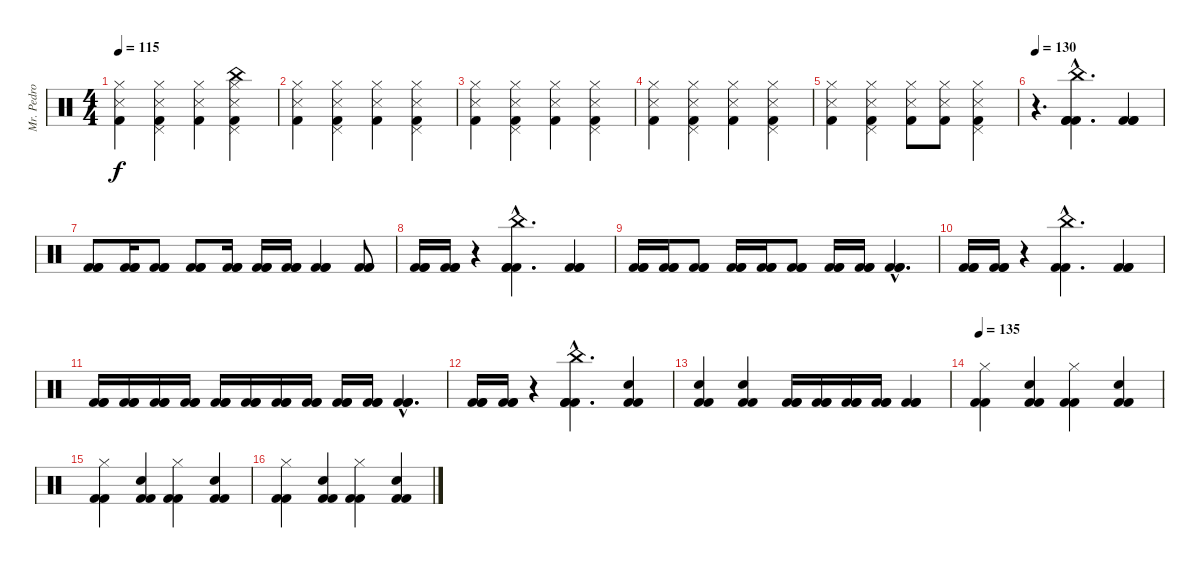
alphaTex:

\track ("Mr. Pedro Andreu" "Mr. Pedro ") {instrument percussion}
\staff {score}
\articulation defaults
\ts (4 4)
\tempo 115
\clef neutral
\ks c
("Hi-Hat (closed)" "Snare (side stick) 3" "Kick (hit) 2").4{dy f} ("Hi-Hat (closed)" "Pedal Hi-Hat (hit)" "Snare (side stick) 3" "Kick (hit) 2").4 ("Hi-Hat (closed)" "Snare (side stick) 3" "Kick (hit) 2").4 ("Hi-Hat (closed)" "Pedal Hi-Hat (hit)" "China (hit)" "Snare (side stick) 3" "Kick (hit) 2").4 |
("Hi-Hat (closed)" "Snare (side stick) 3" "Kick (hit) 2").4 ("Hi-Hat (closed)" "Pedal Hi-Hat (hit)" "Snare (side stick) 3" "Kick (hit) 2").4 ("Hi-Hat (closed)" "Snare (side stick) 3" "Kick (hit) 2").4 ("Hi-Hat (closed)" "Pedal Hi-Hat (hit)" "Snare (side stick) 3" "Kick (hit) 2").4 |
("Hi-Hat (closed)" "Snare (side stick) 3" "Kick (hit) 2").4 ("Hi-Hat (closed)" "Pedal Hi-Hat (hit)" "Snare (side stick) 3" "Kick (hit) 2").4 ("Hi-Hat (closed)" "Snare (side stick) 3" "Kick (hit) 2").4 ("Hi-Hat (closed)" "Pedal Hi-Hat (hit)" "Snare (side stick) 3" "Kick (hit) 2").4 |
("Hi-Hat (closed)" "Snare (side stick) 3" "Kick (hit) 2").4 ("Hi-Hat (closed)" "Pedal Hi-Hat (hit)" "Snare (side stick) 3" "Kick (hit) 2").4 ("Hi-Hat (closed)" "Snare (side stick) 3" "Kick (hit) 2").4 ("Hi-Hat (closed)" "Pedal Hi-Hat (hit)" "Snare (side stick) 3" "Kick (hit) 2").4 |
("Hi-Hat (closed)" "Snare (side stick) 3" "Kick (hit) 2").4 ("Hi-Hat (closed)" "Pedal Hi-Hat (hit)" "Snare (side stick) 3" "Kick (hit) 2").4 ("Hi-Hat (closed)" "Snare (side stick) 3" "Kick (hit) 2").8 ("Hi-Hat (closed)" "Snare (side stick) 3" "Kick (hit) 2").8 ("Hi-Hat (closed)" "Pedal Hi-Hat (hit)" "Snare (side stick) 3" "Kick (hit) 2").4 |
\tempo 130
r.4{d} ("Kick (hit) 2"{hac} "China (hit)"{hac} "Kick (hit) 2"{hac} "Kick (hit) 2"{hac}).4{d} ("Kick (hit) 2" "Kick (hit) 2" "Kick (hit) 2").4 |
("Kick (hit) 2" "Kick (hit) 2" "Kick (hit) 2").8 ("Kick (hit) 2" "Kick (hit) 2" "Kick (hit) 2").16 ("Kick (hit) 2" "Kick (hit) 2" "Kick (hit) 2").8 ("Kick (hit) 2" "Kick (hit) 2" "Kick (hit) 2").8 ("Kick (hit) 2" "Kick (hit) 2" "Kick (hit) 2").16 ("Kick (hit) 2" "Kick (hit) 2" "Kick (hit) 2").16 ("Kick (hit) 2" "Kick (hit) 2" "Kick (hit) 2").16 ("Kick (hit) 2" "Kick (hit) 2" "Kick (hit) 2").4 ("Kick (hit) 2" "Kick (hit) 2" "Kick (hit) 2").8 |
("Kick (hit) 2" "Kick (hit) 2" "Kick (hit) 2").16 ("Kick (hit) 2" "Kick (hit) 2" "Kick (hit) 2").16 r.4 ("Kick (hit) 2"{hac} "China (hit)"{hac} "Kick (hit) 2"{hac} "Kick (hit) 2"{hac}).4{d} ("Kick (hit) 2" "Kick (hit) 2" "Kick (hit) 2").4 |
("Kick (hit) 2" "Kick (hit) 2" "Kick (hit) 2").16 ("Kick (hit) 2" "Kick (hit) 2" "Kick (hit) 2").16 ("Kick (hit) 2" "Kick (hit) 2" "Kick (hit) 2").8 ("Kick (hit) 2" "Kick (hit) 2" "Kick (hit) 2").16 ("Kick (hit) 2" "Kick (hit) 2" "Kick (hit) 2").16 ("Kick (hit) 2" "Kick (hit) 2" "Kick (hit) 2").8 ("Kick (hit) 2" "Kick (hit) 2" "Kick (hit) 2").16 ("Kick (hit) 2" "Kick (hit) 2" "Kick (hit) 2").16 ("Kick (hit) 2"{hac} "Kick (hit) 2"{hac} "Kick (hit) 2"{hac}).4{d} |
("Kick (hit) 2" "Kick (hit) 2" "Kick (hit) 2").16 ("Kick (hit) 2" "Kick (hit) 2" "Kick (hit) 2").16 r.4 ("Kick (hit) 2"{hac} "China (hit)"{hac} "Kick (hit) 2"{hac}).4{d} ("Kick (hit) 2" "Kick (hit) 2" "Kick (hit) 2").4 |
("Kick (hit) 2" "Kick (hit) 2" "Kick (hit) 2").16 ("Kick (hit) 2" "Kick (hit) 2" "Kick (hit) 2").16 ("Kick (hit) 2" "Kick (hit) 2" "Kick (hit) 2").16 ("Kick (hit) 2" "Kick (hit) 2" "Kick (hit) 2").16 ("Kick (hit) 2" "Kick (hit) 2" "Kick (hit) 2").16 ("Kick (hit) 2" "Kick (hit) 2" "Kick (hit) 2").16 ("Kick (hit) 2" "Kick (hit) 2" "Kick (hit) 2").16 ("Kick (hit) 2" "Kick (hit) 2" "Kick (hit) 2").16 ("Kick (hit) 2" "Kick (hit) 2" "Kick (hit) 2").16 ("Kick (hit) 2" "Kick (hit) 2" "Kick (hit) 2").16 ("Kick (hit) 2"{hac} "Kick (hit) 2"{hac} "Kick (hit) 2"{hac}).4{d} |
("Kick (hit) 2" "Kick (hit) 2" "Kick (hit) 2").16 ("Kick (hit) 2" "Kick (hit) 2" "Kick (hit) 2").16 r.4 ("Kick (hit) 2"{hac} "China (hit)"{hac} "Kick (hit) 2"{hac} "Kick (hit) 2"{hac}).4{d} ("Snare (hit) 2" "Kick (hit) 2" "Kick (hit) 2").4 |
("Snare (hit) 2" "Kick (hit) 2" "Kick (hit) 2").4 ("Snare (hit) 2" "Kick (hit) 2" "Kick (hit) 2").4 ("Kick (hit) 2" "Kick (hit) 2" "Kick (hit) 2").16 ("Kick (hit) 2" "Kick (hit) 2" "Kick (hit) 2").16 ("Kick (hit) 2" "Kick (hit) 2" "Kick (hit) 2").16 ("Kick (hit) 2" "Kick (hit) 2" "Kick (hit) 2").16 ("Kick (hit) 2" "Kick (hit) 2" "Kick (hit) 2").4 |
\tempo 135
("Hi-Hat (closed)" "Kick (hit) 2" "Kick (hit) 2").4 ("Snare (hit) 2" "Kick (hit) 2" "Kick (hit) 2").4 ("Hi-Hat (closed)" "Kick (hit) 2" "Kick (hit) 2").4 ("Snare (hit) 2" "Kick (hit) 2" "Kick (hit) 2").4 |
("Hi-Hat (closed)" "Kick (hit) 2" "Kick (hit) 2").4 ("Snare (hit) 2" "Kick (hit) 2" "Kick (hit) 2").4 ("Hi-Hat (closed)" "Kick (hit) 2" "Kick (hit) 2").4 ("Snare (hit) 2" "Kick (hit) 2" "Kick (hit) 2").4 |
("Hi-Hat (closed)" "Kick (hit) 2" "Kick (hit) 2").4 ("Snare (hit) 2" "Kick (hit) 2" "Kick (hit) 2").4 ("Hi-Hat (closed)" "Kick (hit) 2" "Kick (hit) 2").4 ("Snare (hit) 2" "Kick (hit) 2" "Kick (hit) 2").4
